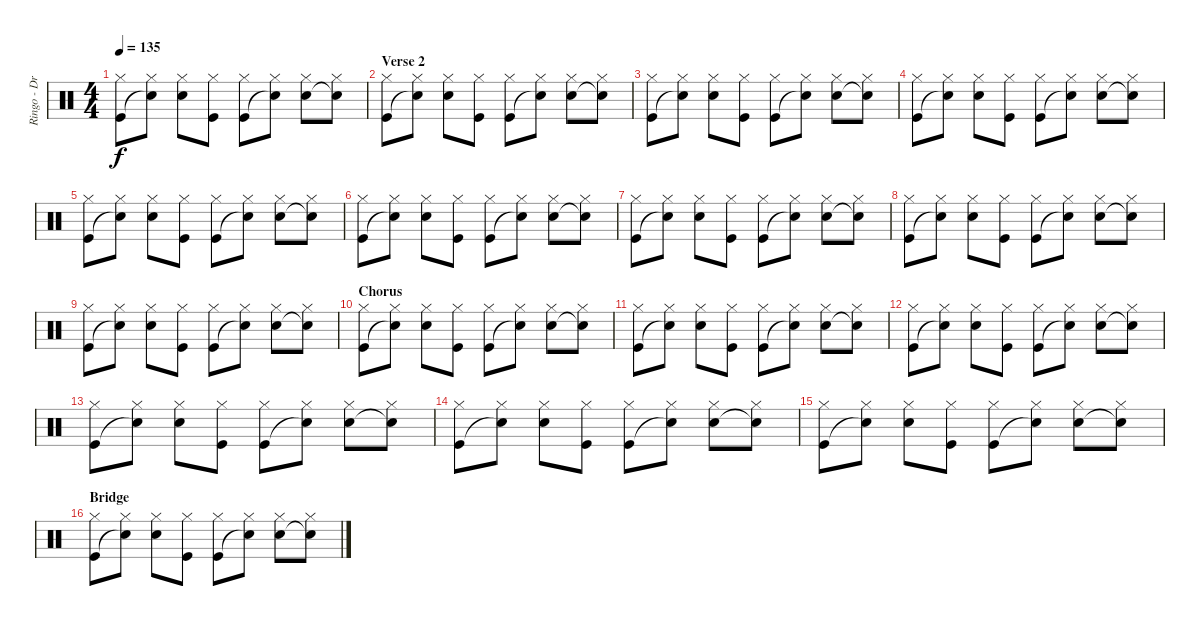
\track ("Ringo - Drums" "Ringo - Dr") {instrument percussion}
\staff {score}
\articulation defaults
\ts (4 4)
\tempo 135
\clef neutral
\ks c
("Kick (hit)" "Hi-Hat (closed)").8{dy f} ("Snare (hit)"{t} "Hi-Hat (closed)").8 ("Snare (hit) 2" "Hi-Hat (closed)").8 ("Kick (hit)" "Hi-Hat (closed)").8 ("Kick (hit)" "Hi-Hat (closed)").8 ("Snare (hit)"{t} "Hi-Hat (closed)").8 ("Snare (hit) 2" "Hi-Hat (closed)").8 ("Snare (hit)"{t} "Hi-Hat (closed)").8 |
\section ("" "Verse 2")
("Kick (hit)" "Hi-Hat (closed)").8 ("Snare (hit)"{t} "Hi-Hat (closed)").8 ("Snare (hit) 2" "Hi-Hat (closed)").8 ("Kick (hit)" "Hi-Hat (closed)").8 ("Kick (hit)" "Hi-Hat (closed)").8 ("Snare (hit)"{t} "Hi-Hat (closed)").8 ("Snare (hit) 2" "Hi-Hat (closed)").8 ("Snare (hit)"{t} "Hi-Hat (closed)").8 |
("Kick (hit)" "Hi-Hat (closed)").8 ("Snare (hit)"{t} "Hi-Hat (closed)").8 ("Snare (hit) 2" "Hi-Hat (closed)").8 ("Kick (hit)" "Hi-Hat (closed)").8 ("Kick (hit)" "Hi-Hat (closed)").8 ("Snare (hit)"{t} "Hi-Hat (closed)").8 ("Snare (hit) 2" "Hi-Hat (closed)").8 ("Snare (hit)"{t} "Hi-Hat (closed)").8 |
("Kick (hit)" "Hi-Hat (closed)").8 ("Snare (hit)"{t} "Hi-Hat (closed)").8 ("Snare (hit) 2" "Hi-Hat (closed)").8 ("Kick (hit)" "Hi-Hat (closed)").8 ("Kick (hit)" "Hi-Hat (closed)").8 ("Snare (hit)"{t} "Hi-Hat (closed)").8 ("Snare (hit) 2" "Hi-Hat (closed)").8 ("Snare (hit)"{t} "Hi-Hat (closed)").8 |
("Kick (hit)" "Hi-Hat (closed)").8 ("Snare (hit)"{t} "Hi-Hat (closed)").8 ("Snare (hit) 2" "Hi-Hat (closed)").8 ("Kick (hit)" "Hi-Hat (closed)").8 ("Kick (hit)" "Hi-Hat (closed)").8 ("Snare (hit)"{t} "Hi-Hat (closed)").8 ("Snare (hit) 2" "Hi-Hat (closed)").8 ("Snare (hit)"{t} "Hi-Hat (closed)").8 |
("Kick (hit)" "Hi-Hat (closed)").8 ("Snare (hit)"{t} "Hi-Hat (closed)").8 ("Snare (hit) 2" "Hi-Hat (closed)").8 ("Kick (hit)" "Hi-Hat (closed)").8 ("Kick (hit)" "Hi-Hat (closed)").8 ("Snare (hit)"{t} "Hi-Hat (closed)").8 ("Snare (hit) 2" "Hi-Hat (closed)").8 ("Snare (hit)"{t} "Hi-Hat (closed)").8 |
("Kick (hit)" "Hi-Hat (closed)").8 ("Snare (hit)"{t} "Hi-Hat (closed)").8 ("Snare (hit) 2" "Hi-Hat (closed)").8 ("Kick (hit)" "Hi-Hat (closed)").8 ("Kick (hit)" "Hi-Hat (closed)").8 ("Snare (hit)"{t} "Hi-Hat (closed)").8 ("Snare (hit) 2" "Hi-Hat (closed)").8 ("Snare (hit)"{t} "Hi-Hat (closed)").8 |
("Kick (hit)" "Hi-Hat (closed)").8 ("Snare (hit)"{t} "Hi-Hat (closed)").8 ("Snare (hit) 2" "Hi-Hat (closed)").8 ("Kick (hit)" "Hi-Hat (closed)").8 ("Kick (hit)" "Hi-Hat (closed)").8 ("Snare (hit)"{t} "Hi-Hat (closed)").8 ("Snare (hit) 2" "Hi-Hat (closed)").8 ("Snare (hit)"{t} "Hi-Hat (closed)").8 |
("Kick (hit)" "Hi-Hat (closed)").8 ("Snare (hit)"{t} "Hi-Hat (closed)").8 ("Snare (hit) 2" "Hi-Hat (closed)").8 ("Kick (hit)" "Hi-Hat (closed)").8 ("Kick (hit)" "Hi-Hat (closed)").8 ("Snare (hit)"{t} "Hi-Hat (closed)").8 ("Snare (hit) 2" "Hi-Hat (closed)").8 ("Snare (hit)"{t} "Hi-Hat (closed)").8 |
\section ("" "Chorus")
("Kick (hit)" "Hi-Hat (closed)").8 ("Snare (hit)"{t} "Hi-Hat (closed)").8 ("Snare (hit) 2" "Hi-Hat (closed)").8 ("Kick (hit)" "Hi-Hat (closed)").8 ("Kick (hit)" "Hi-Hat (closed)").8 ("Snare (hit)"{t} "Hi-Hat (closed)").8 ("Snare (hit) 2" "Hi-Hat (closed)").8 ("Snare (hit)"{t} "Hi-Hat (closed)").8 |
("Kick (hit)" "Hi-Hat (closed)").8 ("Snare (hit)"{t} "Hi-Hat (closed)").8 ("Snare (hit) 2" "Hi-Hat (closed)").8 ("Kick (hit)" "Hi-Hat (closed)").8 ("Kick (hit)" "Hi-Hat (closed)").8 ("Snare (hit)"{t} "Hi-Hat (closed)").8 ("Snare (hit) 2" "Hi-Hat (closed)").8 ("Snare (hit)"{t} "Hi-Hat (closed)").8 |
("Kick (hit)" "Hi-Hat (closed)").8 ("Snare (hit)"{t} "Hi-Hat (closed)").8 ("Snare (hit) 2" "Hi-Hat (closed)").8 ("Kick (hit)" "Hi-Hat (closed)").8 ("Kick (hit)" "Hi-Hat (closed)").8 ("Snare (hit)"{t} "Hi-Hat (closed)").8 ("Snare (hit) 2" "Hi-Hat (closed)").8 ("Snare (hit)"{t} "Hi-Hat (closed)").8 |
("Kick (hit)" "Hi-Hat (closed)").8 ("Snare (hit)"{t} "Hi-Hat (closed)").8 ("Snare (hit) 2" "Hi-Hat (closed)").8 ("Kick (hit)" "Hi-Hat (closed)").8 ("Kick (hit)" "Hi-Hat (closed)").8 ("Snare (hit)"{t} "Hi-Hat (closed)").8 ("Snare (hit) 2" "Hi-Hat (closed)").8 ("Snare (hit)"{t} "Hi-Hat (closed)").8 |
("Kick (hit)" "Hi-Hat (closed)").8 ("Snare (hit)"{t} "Hi-Hat (closed)").8 ("Snare (hit) 2" "Hi-Hat (closed)").8 ("Kick (hit)" "Hi-Hat (closed)").8 ("Kick (hit)" "Hi-Hat (closed)").8 ("Snare (hit)"{t} "Hi-Hat (closed)").8 ("Snare (hit) 2" "Hi-Hat (closed)").8 ("Snare (hit)"{t} "Hi-Hat (closed)").8 |
("Kick (hit)" "Hi-Hat (closed)").8 ("Snare (hit)"{t} "Hi-Hat (closed)").8 ("Snare (hit) 2" "Hi-Hat (closed)").8 ("Kick (hit)" "Hi-Hat (closed)").8 ("Kick (hit)" "Hi-Hat (closed)").8 ("Snare (hit)"{t} "Hi-Hat (closed)").8 ("Snare (hit) 2" "Hi-Hat (closed)").8 ("Snare (hit)"{t} "Hi-Hat (closed)").8 |
\section ("" "Bridge")
("Kick (hit)" "Hi-Hat (closed)").8 ("Snare (hit)"{t} "Hi-Hat (closed)").8 ("Snare (hit) 2" "Hi-Hat (closed)").8 ("Kick (hit)" "Hi-Hat (closed)").8 ("Kick (hit)" "Hi-Hat (closed)").8 ("Snare (hit)"{t} "Hi-Hat (closed)").8 ("Snare (hit) 2" "Hi-Hat (closed)").8 ("Snare (hit)"{t} "Hi-Hat (closed)").8
